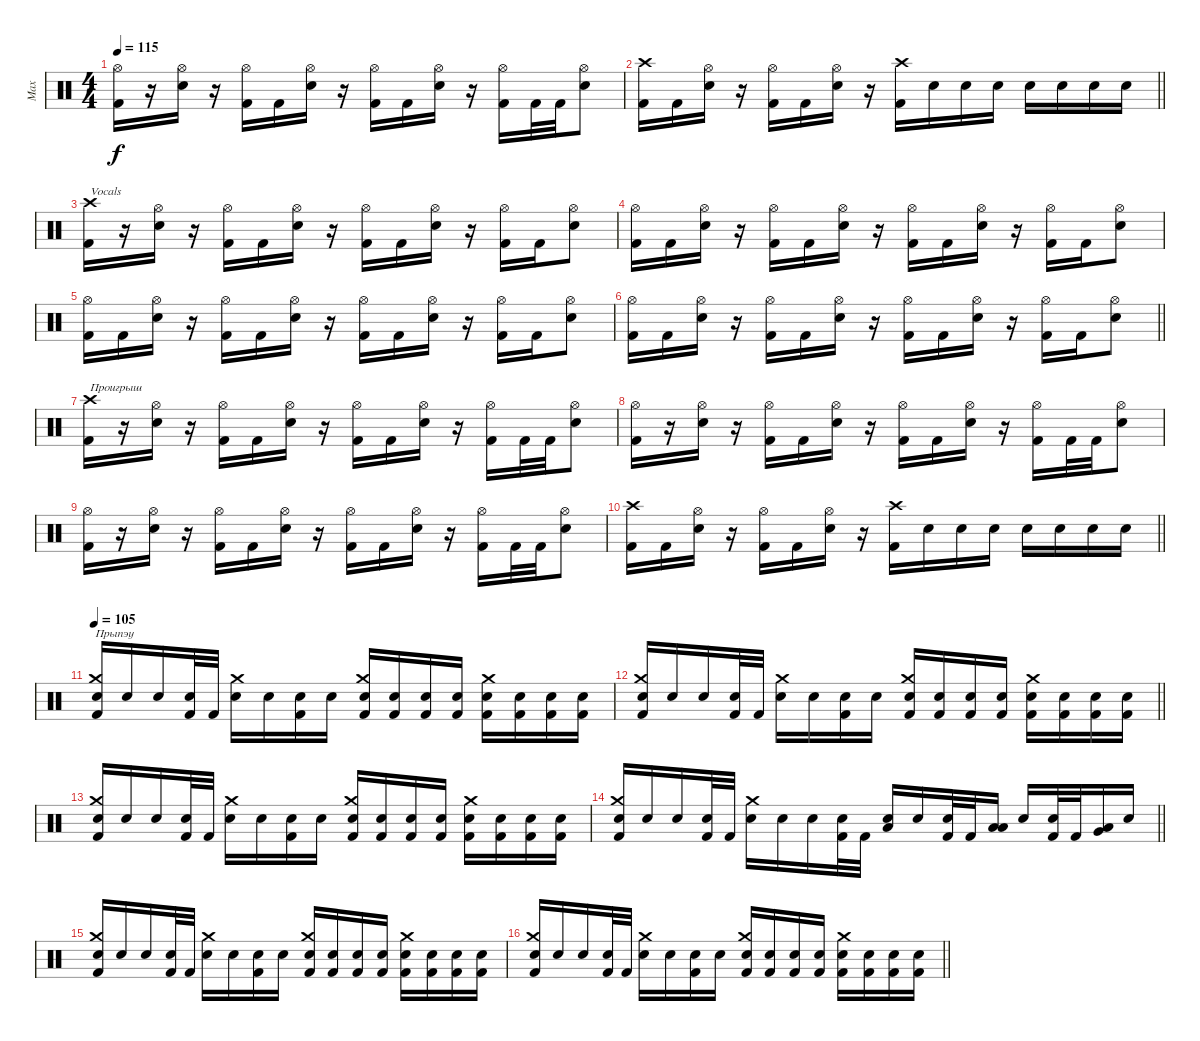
\track ("Max" "Max") {instrument percussion}
\staff {score}
\articulation defaults
\ts (4 4)
\tempo 115
\clef neutral
\ks c
("Hi-Hat (open)" "Kick (hit) 2").16{dy f} r.16 ("Hi-Hat (open)" "Electric Snare (hit)").16 r.16 ("Hi-Hat (open)" "Kick (hit) 2").16 "Kick (hit) 2".16 ("Hi-Hat (open)" "Electric Snare (hit)").16 r.16 ("Hi-Hat (open)" "Kick (hit) 2").16 "Kick (hit) 2".16 ("Hi-Hat (open)" "Electric Snare (hit)").16 r.16 ("Hi-Hat (open)" "Kick (hit) 2").16 "Kick (hit) 2".32 "Kick (hit) 2".32 ("Hi-Hat (open)" "Electric Snare (hit)").8 |
\barLineRight lightlight
("Crash high (hit)" "Kick (hit) 2").16 "Kick (hit) 2".16 ("Hi-Hat (open)" "Electric Snare (hit)").16 r.16 ("Hi-Hat (open)" "Kick (hit) 2").16 "Kick (hit) 2".16 ("Hi-Hat (open)" "Electric Snare (hit)").16 r.16 ("Crash high (hit)" "Kick (hit) 2").16 "Electric Snare (hit)".16 "Electric Snare (hit)".16 "Electric Snare (hit)".16 "Electric Snare (hit)".16 "Electric Snare (hit)".16 "Electric Snare (hit)".16 "Electric Snare (hit)".16 |
("Crash high (hit)" "Kick (hit) 2").16{txt "Vocals"} r.16 ("Hi-Hat (open)" "Electric Snare (hit)").16 r.16 ("Hi-Hat (open)" "Kick (hit) 2").16 "Kick (hit) 2".16 ("Hi-Hat (open)" "Electric Snare (hit)").16 r.16 ("Hi-Hat (open)" "Kick (hit) 2").16 "Kick (hit) 2".16 ("Hi-Hat (open)" "Electric Snare (hit)").16 r.16 ("Hi-Hat (open)" "Kick (hit) 2").16 "Kick (hit) 2".16 ("Hi-Hat (open)" "Electric Snare (hit)").8 |
("Hi-Hat (open)" "Kick (hit) 2").16 "Kick (hit) 2".16 ("Hi-Hat (open)" "Electric Snare (hit)").16 r.16 ("Hi-Hat (open)" "Kick (hit) 2").16 "Kick (hit) 2".16 ("Hi-Hat (open)" "Electric Snare (hit)").16 r.16 ("Hi-Hat (open)" "Kick (hit) 2").16 "Kick (hit) 2".16 ("Hi-Hat (open)" "Electric Snare (hit)").16 r.16 ("Hi-Hat (open)" "Kick (hit) 2").16 "Kick (hit) 2".16 ("Hi-Hat (open)" "Electric Snare (hit)").8 |
("Hi-Hat (open)" "Kick (hit) 2").16 "Kick (hit) 2".16 ("Hi-Hat (open)" "Electric Snare (hit)").16 r.16 ("Hi-Hat (open)" "Kick (hit) 2").16 "Kick (hit) 2".16 ("Hi-Hat (open)" "Electric Snare (hit)").16 r.16 ("Hi-Hat (open)" "Kick (hit) 2").16 "Kick (hit) 2".16 ("Hi-Hat (open)" "Electric Snare (hit)").16 r.16 ("Hi-Hat (open)" "Kick (hit) 2").16 "Kick (hit) 2".16 ("Hi-Hat (open)" "Electric Snare (hit)").8 |
\barLineRight lightlight
("Hi-Hat (open)" "Kick (hit) 2").16 "Kick (hit) 2".16 ("Hi-Hat (open)" "Electric Snare (hit)").16 r.16 ("Hi-Hat (open)" "Kick (hit) 2").16 "Kick (hit) 2".16 ("Hi-Hat (open)" "Electric Snare (hit)").16 r.16 ("Hi-Hat (open)" "Kick (hit) 2").16 "Kick (hit) 2".16 ("Hi-Hat (open)" "Electric Snare (hit)").16 r.16 ("Hi-Hat (open)" "Kick (hit) 2").16 "Kick (hit) 2".16 ("Hi-Hat (open)" "Electric Snare (hit)").8 |
("Crash high (hit)" "Kick (hit) 2").16{txt "Проигрыш"} r.16 ("Hi-Hat (open)" "Electric Snare (hit)").16 r.16 ("Hi-Hat (open)" "Kick (hit) 2").16 "Kick (hit) 2".16 ("Hi-Hat (open)" "Electric Snare (hit)").16 r.16 ("Hi-Hat (open)" "Kick (hit) 2").16 "Kick (hit) 2".16 ("Hi-Hat (open)" "Electric Snare (hit)").16 r.16 ("Hi-Hat (open)" "Kick (hit) 2").16 "Kick (hit) 2".32 "Kick (hit) 2".32 ("Hi-Hat (open)" "Electric Snare (hit)").8 |
("Hi-Hat (open)" "Kick (hit) 2").16 r.16 ("Hi-Hat (open)" "Electric Snare (hit)").16 r.16 ("Hi-Hat (open)" "Kick (hit) 2").16 "Kick (hit) 2".16 ("Hi-Hat (open)" "Electric Snare (hit)").16 r.16 ("Hi-Hat (open)" "Kick (hit) 2").16 "Kick (hit) 2".16 ("Hi-Hat (open)" "Electric Snare (hit)").16 r.16 ("Hi-Hat (open)" "Kick (hit) 2").16 "Kick (hit) 2".32 "Kick (hit) 2".32 ("Hi-Hat (open)" "Electric Snare (hit)").8 |
("Hi-Hat (open)" "Kick (hit) 2").16 r.16 ("Hi-Hat (open)" "Electric Snare (hit)").16 r.16 ("Hi-Hat (open)" "Kick (hit) 2").16 "Kick (hit) 2".16 ("Hi-Hat (open)" "Electric Snare (hit)").16 r.16 ("Hi-Hat (open)" "Kick (hit) 2").16 "Kick (hit) 2".16 ("Hi-Hat (open)" "Electric Snare (hit)").16 r.16 ("Hi-Hat (open)" "Kick (hit) 2").16 "Kick (hit) 2".32 "Kick (hit) 2".32 ("Hi-Hat (open)" "Electric Snare (hit)").8 |
\barLineRight lightlight
("Crash high (hit)" "Kick (hit) 2").16 "Kick (hit) 2".16 ("Hi-Hat (open)" "Electric Snare (hit)").16 r.16 ("Hi-Hat (open)" "Kick (hit) 2").16 "Kick (hit) 2".16 ("Hi-Hat (open)" "Electric Snare (hit)").16 r.16 ("Crash high (hit)" "Kick (hit) 2").16 "Electric Snare (hit)".16 "Electric Snare (hit)".16 "Electric Snare (hit)".16 "Electric Snare (hit)".16 "Electric Snare (hit)".16 "Electric Snare (hit)".16 "Electric Snare (hit)".16 |
\tempo 105
("Crash medium (hit)" "Snare (hit)" "Kick (hit) 2").16{txt "Прыпэу "} "Snare (hit)".16 "Snare (hit)".16 ("Snare (hit)" "Kick (hit) 2").32 "Kick (hit) 2".32 ("Crash medium (hit)" "Electric Snare (hit)").16 "Snare (hit)".16 ("Snare (hit)" "Kick (hit) 2").16 "Snare (hit)".16 ("Crash medium (hit)" "Snare (hit)" "Kick (hit) 2").16 ("Snare (hit)" "Kick (hit) 2").16 ("Snare (hit)" "Kick (hit) 2").16 ("Snare (hit)" "Kick (hit) 2").16 ("Crash medium (hit)" "Electric Snare (hit)" "Kick (hit) 2").16 ("Snare (hit)" "Kick (hit) 2").16 ("Snare (hit)" "Kick (hit) 2").16 ("Snare (hit)" "Kick (hit) 2").16 |
\barLineRight lightlight
("Crash medium (hit)" "Snare (hit)" "Kick (hit) 2").16 "Snare (hit)".16 "Snare (hit)".16 ("Snare (hit)" "Kick (hit) 2").32 "Kick (hit) 2".32 ("Crash medium (hit)" "Electric Snare (hit)").16 "Snare (hit)".16 ("Snare (hit)" "Kick (hit) 2").16 "Snare (hit)".16 ("Crash medium (hit)" "Snare (hit)" "Kick (hit) 2").16 ("Snare (hit)" "Kick (hit) 2").16 ("Snare (hit)" "Kick (hit) 2").16 ("Snare (hit)" "Kick (hit) 2").16 ("Crash medium (hit)" "Electric Snare (hit)" "Kick (hit) 2").16 ("Snare (hit)" "Kick (hit) 2").16 ("Snare (hit)" "Kick (hit) 2").16 ("Snare (hit)" "Kick (hit) 2").16 |
("Crash medium (hit)" "Snare (hit)" "Kick (hit) 2").16 "Snare (hit)".16 "Snare (hit)".16 ("Snare (hit)" "Kick (hit) 2").32 "Kick (hit) 2".32 ("Crash medium (hit)" "Electric Snare (hit)").16 "Snare (hit)".16 ("Snare (hit)" "Kick (hit) 2").16 "Snare (hit)".16 ("Crash medium (hit)" "Snare (hit)" "Kick (hit) 2").16 ("Snare (hit)" "Kick (hit) 2").16 ("Snare (hit)" "Kick (hit) 2").16 ("Snare (hit)" "Kick (hit) 2").16 ("Crash medium (hit)" "Electric Snare (hit)" "Kick (hit) 2").16 ("Snare (hit)" "Kick (hit) 2").16 ("Snare (hit)" "Kick (hit) 2").16 ("Snare (hit)" "Kick (hit) 2").16 |
\barLineRight lightlight
("Crash medium (hit)" "Snare (hit)" "Kick (hit) 2").16 "Snare (hit)".16 "Snare (hit)".16 ("Snare (hit)" "Kick (hit) 2").32 "Kick (hit) 2".32 ("Crash medium (hit)" "Electric Snare (hit)").16 "Snare (hit)".16 "Snare (hit)".16 ("Snare (hit)" "Kick (hit) 2").32 "Kick (hit) 2".32 ("Low Floor Tom (hit)" "Electric Snare (hit)").16 "Snare (hit)".16 ("Snare (hit)" "Kick (hit) 2").32 "Kick (hit) 2".32 ("Low Floor Tom (hit)" "Low Tom (hit)").16 "Snare (hit)".16 ("Snare (hit)" "Kick (hit) 2").32 "Kick (hit) 2".32 ("Low Floor Tom (hit)" "Very Low Tom (hit)").16 "Snare (hit)".16 |
("Crash medium (hit)" "Snare (hit)" "Kick (hit) 2").16 "Snare (hit)".16 "Snare (hit)".16 ("Snare (hit)" "Kick (hit) 2").32 "Kick (hit) 2".32 ("Crash medium (hit)" "Electric Snare (hit)").16 "Snare (hit)".16 ("Snare (hit)" "Kick (hit) 2").16 "Snare (hit)".16 ("Crash medium (hit)" "Snare (hit)" "Kick (hit) 2").16 ("Snare (hit)" "Kick (hit) 2").16 ("Snare (hit)" "Kick (hit) 2").16 ("Snare (hit)" "Kick (hit) 2").16 ("Crash medium (hit)" "Electric Snare (hit)" "Kick (hit) 2").16 ("Snare (hit)" "Kick (hit) 2").16 ("Snare (hit)" "Kick (hit) 2").16 ("Snare (hit)" "Kick (hit) 2").16 |
\barLineRight lightlight
("Crash medium (hit)" "Snare (hit)" "Kick (hit) 2").16 "Snare (hit)".16 "Snare (hit)".16 ("Snare (hit)" "Kick (hit) 2").32 "Kick (hit) 2".32 ("Crash medium (hit)" "Electric Snare (hit)").16 "Snare (hit)".16 ("Snare (hit)" "Kick (hit) 2").16 "Snare (hit)".16 ("Crash medium (hit)" "Snare (hit)" "Kick (hit) 2").16 ("Snare (hit)" "Kick (hit) 2").16 ("Snare (hit)" "Kick (hit) 2").16 ("Snare (hit)" "Kick (hit) 2").16 ("Crash medium (hit)" "Electric Snare (hit)" "Kick (hit) 2").16 ("Snare (hit)" "Kick (hit) 2").16 ("Snare (hit)" "Kick (hit) 2").16 ("Snare (hit)" "Kick (hit) 2").16
